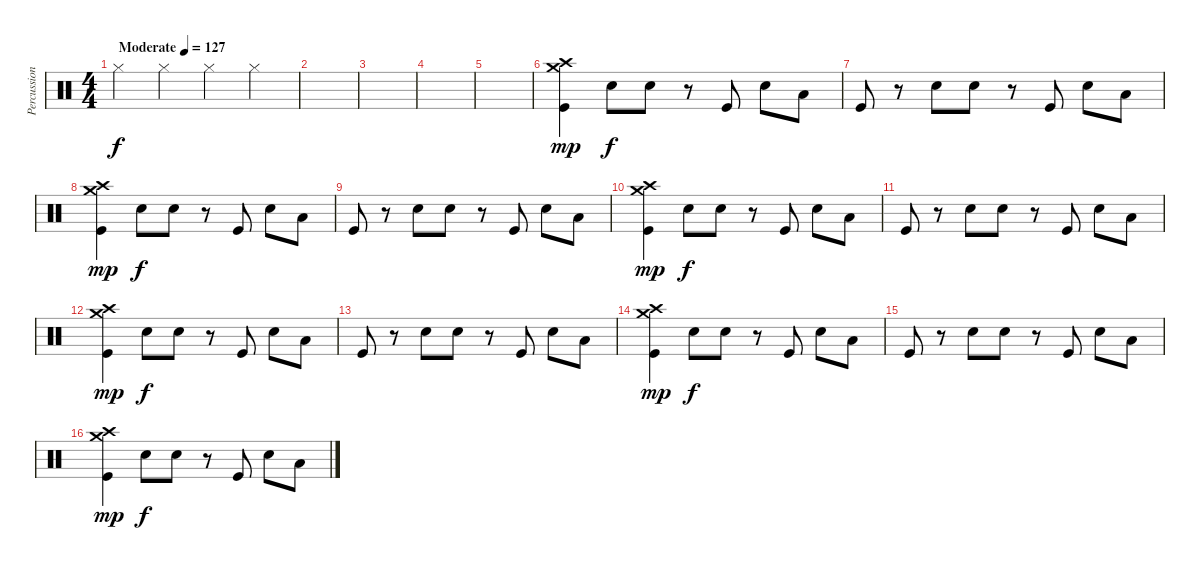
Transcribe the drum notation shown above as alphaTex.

\track ("Percussion" "Percussion") {instrument percussion}
\staff {score}
\articulation defaults
\ts (4 4)
\tempo (127 "Moderate")
\clef neutral
\ks c "Hi-Hat (closed)".4{dy f volume 3} "Hi-Hat (closed)".4 "Hi-Hat (closed)".4 "Hi-Hat (closed)".4
|
|
|
|
|
("Crash medium (hit)" "Crash high (hit)" "Kick (hit)").4{dy mp volume 12} "Snare (hit) 2".8{dy f} "Snare (hit) 2".8 r.8 "Kick (hit)".8 "Snare (hit) 2".8 "Low Floor Tom (hit)".8 |
"Kick (hit)".8 r.8 "Snare (hit) 2".8 "Snare (hit) 2".8 r.8 "Kick (hit)".8 "Snare (hit) 2".8 "Low Floor Tom (hit)".8 |
("Crash medium (hit)" "Crash high (hit)" "Kick (hit)").4{dy mp} "Snare (hit) 2".8{dy f} "Snare (hit) 2".8 r.8 "Kick (hit)".8 "Snare (hit) 2".8 "Low Floor Tom (hit)".8 |
"Kick (hit)".8 r.8 "Snare (hit) 2".8 "Snare (hit) 2".8 r.8 "Kick (hit)".8 "Snare (hit) 2".8 "Low Floor Tom (hit)".8 |
("Crash medium (hit)" "Crash high (hit)" "Kick (hit)").4{dy mp} "Snare (hit) 2".8{dy f} "Snare (hit) 2".8 r.8 "Kick (hit)".8 "Snare (hit) 2".8 "Low Floor Tom (hit)".8 |
"Kick (hit)".8 r.8 "Snare (hit) 2".8 "Snare (hit) 2".8 r.8 "Kick (hit)".8 "Snare (hit) 2".8 "Low Floor Tom (hit)".8 |
("Crash medium (hit)" "Crash high (hit)" "Kick (hit)").4{dy mp} "Snare (hit) 2".8{dy f} "Snare (hit) 2".8 r.8 "Kick (hit)".8 "Snare (hit) 2".8 "Low Floor Tom (hit)".8 |
"Kick (hit)".8 r.8 "Snare (hit) 2".8 "Snare (hit) 2".8 r.8 "Kick (hit)".8 "Snare (hit) 2".8 "Low Floor Tom (hit)".8 |
("Crash medium (hit)" "Crash high (hit)" "Kick (hit)").4{dy mp} "Snare (hit) 2".8{dy f} "Snare (hit) 2".8 r.8 "Kick (hit)".8 "Snare (hit) 2".8 "Low Floor Tom (hit)".8 |
"Kick (hit)".8 r.8 "Snare (hit) 2".8 "Snare (hit) 2".8 r.8 "Kick (hit)".8 "Snare (hit) 2".8 "Low Floor Tom (hit)".8 |
("Crash medium (hit)" "Crash high (hit)" "Kick (hit)").4{dy mp} "Snare (hit) 2".8{dy f} "Snare (hit) 2".8 r.8 "Kick (hit)".8 "Snare (hit) 2".8 "Low Floor Tom (hit)".8
